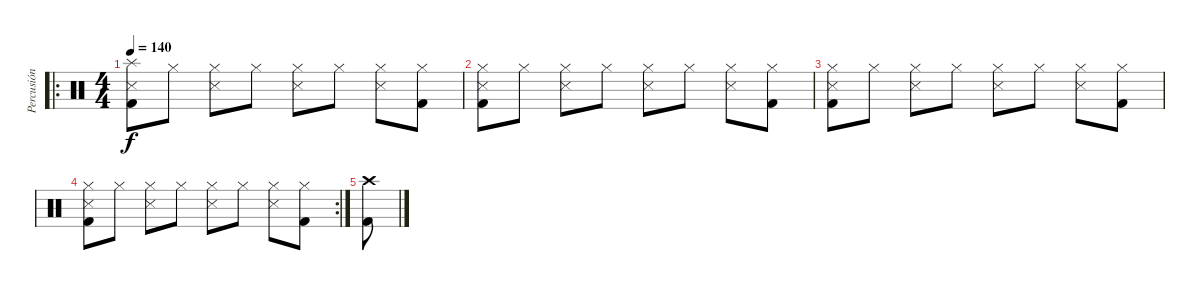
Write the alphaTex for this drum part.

\track ("Percusión" "Percusión") {instrument percussion}
\staff {score}
\articulation defaults
\ro
\ts (4 4)
\tempo 140
\clef neutral
\ks c
("Splash (hit)" "Snare (side stick) 3" "Kick (hit) 2").8{dy f} "Hi-Hat (closed)".8 ("Hi-Hat (closed)" "Snare (side stick) 3").8 "Hi-Hat (closed)".8 ("Hi-Hat (closed)" "Snare (side stick) 3").8 "Hi-Hat (closed)".8 ("Hi-Hat (closed)" "Snare (side stick) 3").8 ("Hi-Hat (closed)" "Kick (hit) 2").8 |
("Hi-Hat (closed)" "Snare (side stick) 3" "Kick (hit) 2").8 "Hi-Hat (closed)".8 ("Hi-Hat (closed)" "Snare (side stick) 3").8 "Hi-Hat (closed)".8 ("Hi-Hat (closed)" "Snare (side stick) 3").8 "Hi-Hat (closed)".8 ("Hi-Hat (closed)" "Snare (side stick) 3").8 ("Hi-Hat (closed)" "Kick (hit) 2").8 |
("Hi-Hat (closed)" "Snare (side stick) 3" "Kick (hit) 2").8 "Hi-Hat (closed)".8 ("Hi-Hat (closed)" "Snare (side stick) 3").8 "Hi-Hat (closed)".8 ("Hi-Hat (closed)" "Snare (side stick) 3").8 "Hi-Hat (closed)".8 ("Hi-Hat (closed)" "Snare (side stick) 3").8 ("Hi-Hat (closed)" "Kick (hit) 2").8 |
\rc 2
("Hi-Hat (closed)" "Snare (side stick) 3" "Kick (hit) 2").8 "Hi-Hat (closed)".8 ("Hi-Hat (closed)" "Snare (side stick) 3").8 "Hi-Hat (closed)".8 ("Hi-Hat (closed)" "Snare (side stick) 3").8 "Hi-Hat (closed)".8 ("Hi-Hat (closed)" "Snare (side stick) 3").8 ("Hi-Hat (closed)" "Kick (hit) 2").8 |
("Crash high (hit)" "Kick (hit) 2").8
